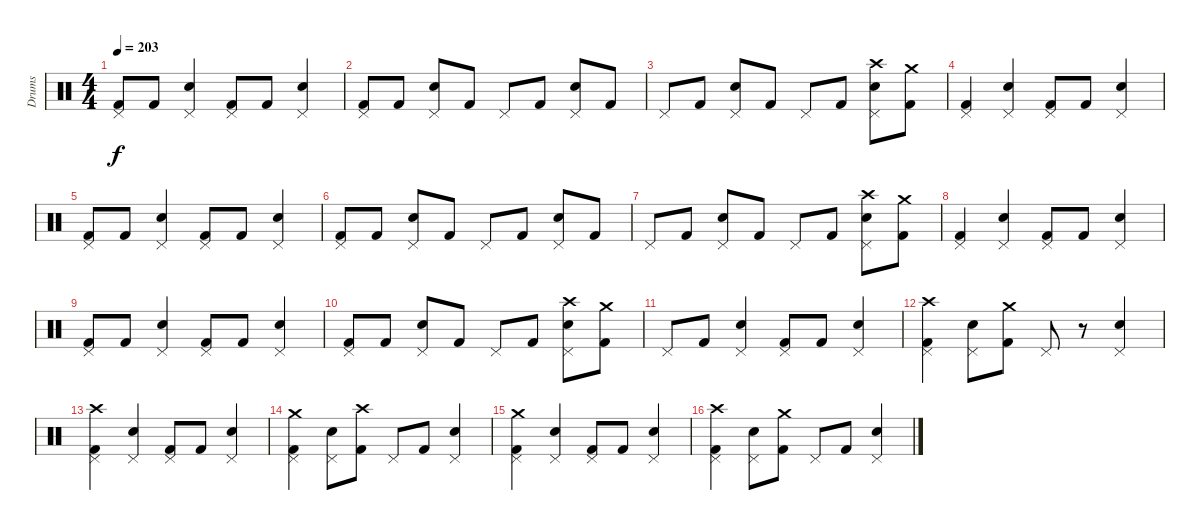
\track ("Drums" "Drums") {instrument percussion}
\staff {score}
\articulation defaults
\ts (4 4)
\tempo 203
\clef neutral
\ks c
("Pedal Hi-Hat (hit)" "Kick (hit) 2").8{dy f} "Kick (hit) 2".8 ("Pedal Hi-Hat (hit)" "Snare (hit) 2").4 ("Pedal Hi-Hat (hit)" "Kick (hit) 2").8 "Kick (hit) 2".8 ("Pedal Hi-Hat (hit)" "Snare (hit) 2").4 |
("Pedal Hi-Hat (hit)" "Kick (hit) 2").8 "Kick (hit) 2".8 ("Pedal Hi-Hat (hit)" "Snare (hit) 2").8 "Kick (hit) 2".8 "Pedal Hi-Hat (hit)".8 "Kick (hit) 2".8 ("Pedal Hi-Hat (hit)" "Snare (hit) 2").8 "Kick (hit) 2".8 |
"Pedal Hi-Hat (hit)".8 "Kick (hit) 2".8 ("Pedal Hi-Hat (hit)" "Snare (hit) 2").8 "Kick (hit) 2".8 "Pedal Hi-Hat (hit)".8 "Kick (hit) 2".8 ("Pedal Hi-Hat (hit)" "Crash high (hit)" "Snare (hit) 2").8 ("Crash medium (hit)" "Kick (hit) 2").8 |
("Pedal Hi-Hat (hit)" "Kick (hit) 2").4 ("Pedal Hi-Hat (hit)" "Snare (hit) 2").4 ("Pedal Hi-Hat (hit)" "Kick (hit) 2").8 "Kick (hit) 2".8 ("Pedal Hi-Hat (hit)" "Snare (hit) 2").4 |
("Pedal Hi-Hat (hit)" "Kick (hit) 2").8 "Kick (hit) 2".8 ("Pedal Hi-Hat (hit)" "Snare (hit) 2").4 ("Pedal Hi-Hat (hit)" "Kick (hit) 2").8 "Kick (hit) 2".8 ("Pedal Hi-Hat (hit)" "Snare (hit) 2").4 |
("Kick (hit) 2" "Pedal Hi-Hat (hit)").8 "Kick (hit) 2".8 ("Pedal Hi-Hat (hit)" "Snare (hit) 2").8 "Kick (hit) 2".8 "Pedal Hi-Hat (hit)".8 "Kick (hit) 2".8 ("Pedal Hi-Hat (hit)" "Snare (hit) 2").8 "Kick (hit) 2".8 |
"Pedal Hi-Hat (hit)".8 "Kick (hit) 2".8 ("Pedal Hi-Hat (hit)" "Snare (hit) 2").8 "Kick (hit) 2".8 "Pedal Hi-Hat (hit)".8 "Kick (hit) 2".8 ("Pedal Hi-Hat (hit)" "Crash high (hit)" "Snare (hit) 2").8 ("Crash medium (hit)" "Kick (hit) 2").8 |
("Pedal Hi-Hat (hit)" "Kick (hit) 2").4 ("Pedal Hi-Hat (hit)" "Snare (hit) 2").4 ("Pedal Hi-Hat (hit)" "Kick (hit) 2").8 "Kick (hit) 2".8 ("Pedal Hi-Hat (hit)" "Snare (hit) 2").4 |
("Pedal Hi-Hat (hit)" "Kick (hit) 2").8 "Kick (hit) 2".8 ("Pedal Hi-Hat (hit)" "Snare (hit) 2").4 ("Pedal Hi-Hat (hit)" "Kick (hit) 2").8 "Kick (hit) 2".8 ("Pedal Hi-Hat (hit)" "Snare (hit) 2").4 |
("Pedal Hi-Hat (hit)" "Kick (hit) 2").8 "Kick (hit) 2".8 ("Pedal Hi-Hat (hit)" "Snare (hit) 2").8 "Kick (hit) 2".8 "Pedal Hi-Hat (hit)".8 "Kick (hit) 2".8 ("Pedal Hi-Hat (hit)" "Crash high (hit)" "Snare (hit) 2").8 ("Crash medium (hit)" "Kick (hit) 2").8 |
"Pedal Hi-Hat (hit)".8 "Kick (hit) 2".8 ("Pedal Hi-Hat (hit)" "Snare (hit) 2").4 ("Kick (hit) 2" "Pedal Hi-Hat (hit)").8 "Kick (hit) 2".8 ("Snare (hit) 2" "Pedal Hi-Hat (hit)").4 |
("Kick (hit) 2" "Pedal Hi-Hat (hit)" "Crash high (hit)").4 ("Snare (hit) 2" "Pedal Hi-Hat (hit)").8 ("Kick (hit) 2" "Crash medium (hit)").8 "Pedal Hi-Hat (hit)".8 r.8 ("Snare (hit) 2" "Pedal Hi-Hat (hit)").4 |
("Pedal Hi-Hat (hit)" "Kick (hit) 2" "Crash high (hit)").4 ("Pedal Hi-Hat (hit)" "Snare (hit) 2").4 ("Pedal Hi-Hat (hit)" "Kick (hit) 2").8 "Kick (hit) 2".8 ("Pedal Hi-Hat (hit)" "Snare (hit) 2").4 |
("Pedal Hi-Hat (hit)" "Kick (hit) 2" "Crash medium (hit)").4 ("Pedal Hi-Hat (hit)" "Snare (hit) 2").8 ("Kick (hit) 2" "Crash high (hit)").8 "Pedal Hi-Hat (hit)".8 "Kick (hit) 2".8 ("Pedal Hi-Hat (hit)" "Snare (hit) 2").4 |
("Pedal Hi-Hat (hit)" "Kick (hit) 2" "Crash medium (hit)").4 ("Pedal Hi-Hat (hit)" "Snare (hit) 2").4 ("Pedal Hi-Hat (hit)" "Kick (hit) 2").8 "Kick (hit) 2".8 ("Pedal Hi-Hat (hit)" "Snare (hit) 2").4 |
("Pedal Hi-Hat (hit)" "Kick (hit) 2" "Crash high (hit)").4 ("Pedal Hi-Hat (hit)" "Snare (hit) 2").8 ("Kick (hit) 2" "Crash medium (hit)").8 "Pedal Hi-Hat (hit)".8 "Kick (hit) 2".8 ("Pedal Hi-Hat (hit)" "Snare (hit) 2").4
